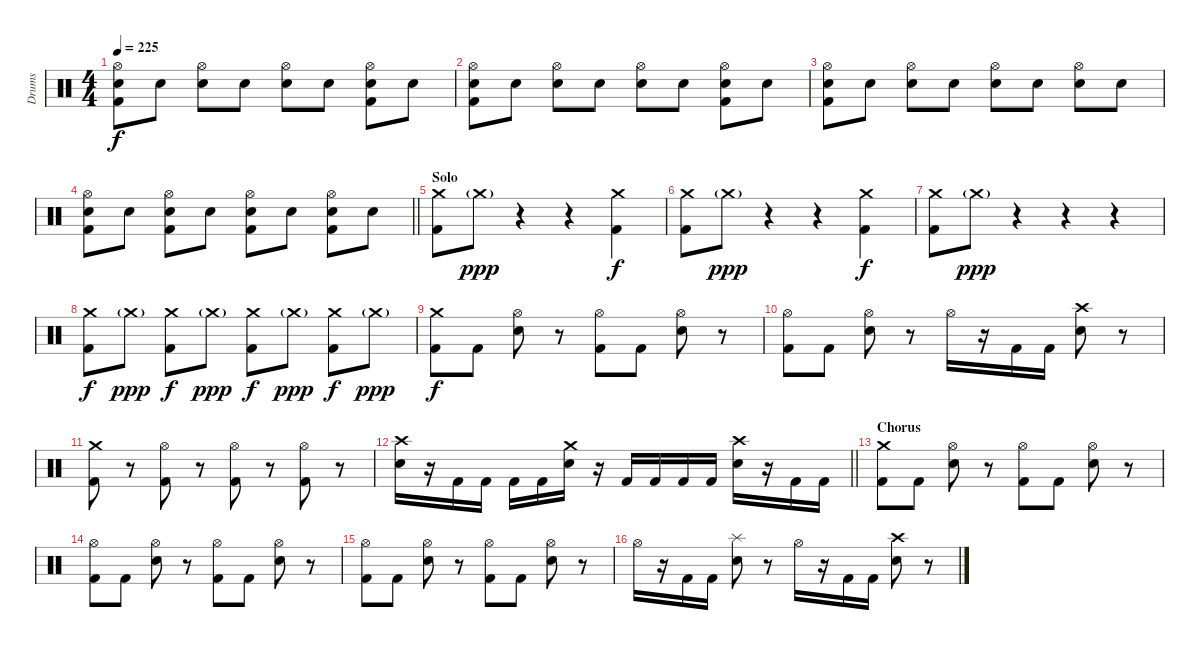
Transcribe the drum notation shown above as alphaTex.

\track ("Drums" "Drums") {instrument percussion}
\staff {score}
\articulation defaults
\ts (4 4)
\tempo 225
\clef neutral
\ks c
("Hi-Hat (open)" "Electric Snare (hit)" "Kick (hit) 2").8{dy f} "Electric Snare (hit)".8 ("Hi-Hat (open)" "Electric Snare (hit)").8 "Electric Snare (hit)".8 ("Hi-Hat (open)" "Electric Snare (hit)").8 "Electric Snare (hit)".8 ("Hi-Hat (open)" "Electric Snare (hit)" "Kick (hit) 2").8 "Electric Snare (hit)".8 |
("Hi-Hat (open)" "Electric Snare (hit)" "Kick (hit) 2").8 "Electric Snare (hit)".8 ("Hi-Hat (open)" "Electric Snare (hit)").8 "Electric Snare (hit)".8 ("Hi-Hat (open)" "Electric Snare (hit)").8 "Electric Snare (hit)".8 ("Hi-Hat (open)" "Electric Snare (hit)" "Kick (hit) 2").8 "Electric Snare (hit)".8 |
("Hi-Hat (open)" "Electric Snare (hit)" "Kick (hit) 2").8 "Electric Snare (hit)".8 ("Hi-Hat (open)" "Electric Snare (hit)").8 "Electric Snare (hit)".8 ("Hi-Hat (open)" "Electric Snare (hit)").8 "Electric Snare (hit)".8 ("Hi-Hat (open)" "Electric Snare (hit)").8 "Electric Snare (hit)".8 |
\barLineRight lightlight
("Hi-Hat (open)" "Electric Snare (hit)" "Kick (hit) 2").8 "Electric Snare (hit)".8 ("Hi-Hat (open)" "Electric Snare (hit)" "Kick (hit) 2").8 "Electric Snare (hit)".8 ("Hi-Hat (open)" "Electric Snare (hit)" "Kick (hit) 2").8 "Electric Snare (hit)".8 ("Hi-Hat (open)" "Electric Snare (hit)" "Kick (hit) 2").8 "Electric Snare (hit)".8 |
\section ("" "Solo")
("Crash medium (hit)" "Kick (hit) 2").8 "Crash medium (hit)"{g}.8{dy ppp} r.4 r.4 ("Crash medium (hit)" "Kick (hit) 2").4{dy f} |
("Crash medium (hit)" "Kick (hit) 2").8 "Crash medium (hit)"{g}.8{dy ppp} r.4 r.4 ("Crash medium (hit)" "Kick (hit) 2").4{dy f} |
("Crash medium (hit)" "Kick (hit) 2").8 "Crash medium (hit)"{g}.8{dy ppp} r.4 r.4 r.4 |
("Crash medium (hit)" "Kick (hit) 2").8{dy f} "Crash medium (hit)"{g}.8{dy ppp} ("Crash medium (hit)" "Kick (hit) 2").8{dy f} "Crash medium (hit)"{g}.8{dy ppp} ("Crash medium (hit)" "Kick (hit) 2").8{dy f} "Crash medium (hit)"{g}.8{dy ppp} ("Crash medium (hit)" "Kick (hit) 2").8{dy f} "Crash medium (hit)"{g}.8{dy ppp} |
("Crash medium (hit)" "Kick (hit) 2").8{dy f} "Kick (hit) 2".8 ("Hi-Hat (open)" "Electric Snare (hit)").8 r.8 ("Hi-Hat (open)" "Kick (hit) 2").8 "Kick (hit) 2".8 ("Hi-Hat (open)" "Electric Snare (hit)").8 r.8 |
("Hi-Hat (open)" "Kick (hit) 2").8 "Kick (hit) 2".8 ("Hi-Hat (open)" "Electric Snare (hit)").8 r.8 "Hi-Hat (open)".16 r.16 "Kick (hit) 2".16 "Kick (hit) 2".16 ("Crash high (hit)" "Electric Snare (hit)").8 r.8 |
("Crash medium (hit)" "Kick (hit) 2").8 r.8 ("Hi-Hat (open)" "Kick (hit) 2").8 r.8 ("Hi-Hat (open)" "Kick (hit) 2").8 r.8 ("Hi-Hat (open)" "Kick (hit) 2").8 r.8 |
\barLineRight lightlight
("Crash high (hit)" "Electric Snare (hit)").16 r.16 "Kick (hit) 2".16 "Kick (hit) 2".16 "Kick (hit) 2".16 "Kick (hit) 2".16 ("Crash medium (hit)" "Electric Snare (hit)").16 r.16 "Kick (hit) 2".16 "Kick (hit) 2".16 "Kick (hit) 2".16 "Kick (hit) 2".16 ("Crash high (hit)" "Electric Snare (hit)").16 r.16 "Kick (hit) 2".16 "Kick (hit) 2".16 |
\section ("" "Chorus")
("Crash medium (hit)" "Kick (hit) 2").8 "Kick (hit) 2".8 ("Hi-Hat (open)" "Electric Snare (hit)").8 r.8 ("Hi-Hat (open)" "Kick (hit) 2").8 "Kick (hit) 2".8 ("Hi-Hat (open)" "Electric Snare (hit)").8 r.8 |
("Hi-Hat (open)" "Kick (hit) 2").8 "Kick (hit) 2".8 ("Hi-Hat (open)" "Electric Snare (hit)").8 r.8 ("Hi-Hat (open)" "Kick (hit) 2").8 "Kick (hit) 2".8 ("Hi-Hat (open)" "Electric Snare (hit)").8 r.8 |
("Hi-Hat (open)" "Kick (hit) 2").8 "Kick (hit) 2".8 ("Hi-Hat (open)" "Electric Snare (hit)").8 r.8 ("Hi-Hat (open)" "Kick (hit) 2").8 "Kick (hit) 2".8 ("Hi-Hat (open)" "Electric Snare (hit)").8 r.8 |
"Hi-Hat (open)".16 r.16 "Kick (hit) 2".16 "Kick (hit) 2".16 ("Splash (hit)" "Electric Snare (hit)").8 r.8 "Hi-Hat (open)".16 r.16 "Kick (hit) 2".16 "Kick (hit) 2".16 ("Crash high (hit)" "Electric Snare (hit)").8 r.8
